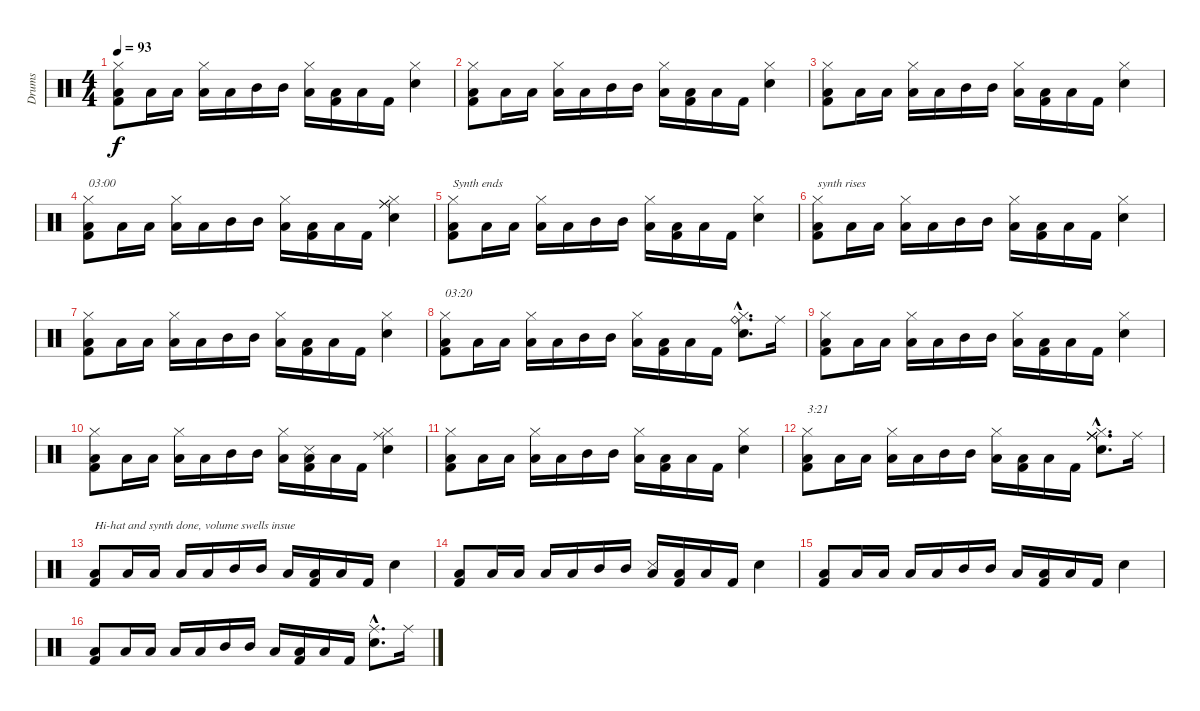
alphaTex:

\track ("Drums" "Drums") {instrument percussion}
\staff {score}
\articulation defaults
\ts (4 4)
\tempo 93
\clef neutral
\ks c
("Hi-Hat (closed)" "Low Floor Tom (hit)" "Kick (hit) 2").8{dy f} "Low Floor Tom (hit)".16 "Low Tom (hit)".16 ("Hi-Hat (closed)" "Low Tom (hit)").16 "Low Floor Tom (hit)".16 "Mid Tom (hit)".16 "Mid Tom (hit)".16 ("Hi-Hat (closed)" "Low Floor Tom (hit)").16 ("Low Tom (hit)" "Kick (hit) 2").16 "Low Floor Tom (hit)".16 "Kick (hit) 2".16 ("Hi-Hat (closed)" "Snare (hit) 2").4 |
("Hi-Hat (closed)" "Low Floor Tom (hit)" "Kick (hit) 2").8 "Low Floor Tom (hit)".16 "Low Tom (hit)".16 ("Hi-Hat (closed)" "Low Tom (hit)").16 "Low Floor Tom (hit)".16 "Mid Tom (hit)".16 "Mid Tom (hit)".16 ("Hi-Hat (closed)" "Low Floor Tom (hit)").16 ("Low Tom (hit)" "Kick (hit) 2").16 "Low Floor Tom (hit)".16 "Kick (hit) 2".16 ("Hi-Hat (closed)" "Snare (hit) 2").4 |
("Hi-Hat (closed)" "Low Floor Tom (hit)" "Kick (hit) 2").8 "Low Floor Tom (hit)".16 "Low Tom (hit)".16 ("Hi-Hat (closed)" "Low Tom (hit)").16 "Low Floor Tom (hit)".16 "Mid Tom (hit)".16 "Mid Tom (hit)".16 ("Hi-Hat (closed)" "Low Floor Tom (hit)").16 ("Low Tom (hit)" "Kick (hit) 2").16 "Low Floor Tom (hit)".16 "Kick (hit) 2".16 ("Hi-Hat (closed)" "Snare (hit) 2").4 |
("Hi-Hat (closed)" "Low Floor Tom (hit)" "Kick (hit) 2").8{txt "03:00"} "Low Floor Tom (hit)".16 "Low Tom (hit)".16 ("Hi-Hat (closed)" "Low Tom (hit)").16 "Low Floor Tom (hit)".16 "Mid Tom (hit)".16 "Mid Tom (hit)".16 ("Hi-Hat (closed)" "Low Floor Tom (hit)").16 ("Low Tom (hit)" "Kick (hit) 2").16 "Low Floor Tom (hit)".16 "Kick (hit) 2".16 ("Hi-Hat (closed)" "Ride (middle)" "Ride (middle)" "Snare (hit) 2").4 |
("Hi-Hat (closed)" "Low Floor Tom (hit)" "Kick (hit) 2").8{txt "Synth ends"} "Low Floor Tom (hit)".16 "Low Tom (hit)".16 ("Hi-Hat (closed)" "Low Tom (hit)").16 "Low Floor Tom (hit)".16 "Mid Tom (hit)".16 "Mid Tom (hit)".16 ("Hi-Hat (closed)" "Low Floor Tom (hit)").16 ("Low Tom (hit)" "Kick (hit) 2").16 "Low Floor Tom (hit)".16 "Kick (hit) 2".16 ("Hi-Hat (closed)" "Snare (hit) 2").4 |
("Hi-Hat (closed)" "Low Floor Tom (hit)" "Kick (hit) 2").8{txt "synth rises"} "Low Floor Tom (hit)".16 "Low Tom (hit)".16 ("Hi-Hat (closed)" "Low Tom (hit)").16 "Low Floor Tom (hit)".16 "Mid Tom (hit)".16 "Mid Tom (hit)".16 ("Hi-Hat (closed)" "Low Floor Tom (hit)").16 ("Low Tom (hit)" "Kick (hit) 2").16 "Low Floor Tom (hit)".16 "Kick (hit) 2".16 ("Hi-Hat (closed)" "Snare (hit) 2").4 |
("Hi-Hat (closed)" "Low Floor Tom (hit)" "Kick (hit) 2").8 "Low Floor Tom (hit)".16 "Low Tom (hit)".16 ("Hi-Hat (closed)" "Low Tom (hit)").16 "Low Floor Tom (hit)".16 "Mid Tom (hit)".16 "Mid Tom (hit)".16 ("Hi-Hat (closed)" "Low Floor Tom (hit)").16 ("Low Tom (hit)" "Kick (hit) 2").16 "Low Floor Tom (hit)".16 "Kick (hit) 2".16 ("Hi-Hat (closed)" "Snare (hit) 2").4 |
("Hi-Hat (closed)" "Low Floor Tom (hit)" "Kick (hit) 2").8{txt "03:20"} "Low Floor Tom (hit)".16 "Low Tom (hit)".16 ("Hi-Hat (closed)" "Low Tom (hit)").16 "Low Floor Tom (hit)".16 "Mid Tom (hit)".16 "Mid Tom (hit)".16 ("Hi-Hat (closed)" "Low Floor Tom (hit)").16 ("Low Tom (hit)" "Kick (hit) 2").16 "Low Floor Tom (hit)".16 "Kick (hit) 2".16 ("Hi-Hat (closed)"{hac} "Ride (bell)"{hac} "Snare (hit) 2"{hac}).8{d} "Ride (middle)".16 |
("Hi-Hat (closed)" "Low Floor Tom (hit)" "Kick (hit) 2").8 "Low Floor Tom (hit)".16 "Low Tom (hit)".16 ("Hi-Hat (closed)" "Low Tom (hit)").16 "Low Floor Tom (hit)".16 "Mid Tom (hit)".16 "Mid Tom (hit)".16 ("Hi-Hat (closed)" "Low Floor Tom (hit)").16 ("Low Tom (hit)" "Kick (hit) 2").16 "Low Floor Tom (hit)".16 "Kick (hit) 2".16 ("Hi-Hat (closed)" "Snare (hit) 2").4 |
("Hi-Hat (closed)" "Low Floor Tom (hit)" "Kick (hit) 2").8 "Low Floor Tom (hit)".16 "Low Tom (hit)".16 ("Hi-Hat (closed)" "Low Tom (hit)").16 "Low Floor Tom (hit)".16 "Mid Tom (hit)".16 "Mid Tom (hit)".16 ("Hi-Hat (closed)" "Low Floor Tom (hit)").16 ("Snare (side stick) 3" "Low Tom (hit)" "Kick (hit) 2").16 "Low Floor Tom (hit)".16 "Kick (hit) 2".16 ("Hi-Hat (closed)" "Ride (middle)" "Snare (hit) 2").4 |
("Hi-Hat (closed)" "Low Floor Tom (hit)" "Kick (hit) 2").8 "Low Floor Tom (hit)".16 "Low Tom (hit)".16 ("Hi-Hat (closed)" "Low Tom (hit)").16 "Low Floor Tom (hit)".16 "Mid Tom (hit)".16 "Mid Tom (hit)".16 ("Hi-Hat (closed)" "Low Floor Tom (hit)").16 ("Low Tom (hit)" "Kick (hit) 2").16 "Low Floor Tom (hit)".16 "Kick (hit) 2".16 ("Hi-Hat (closed)" "Snare (hit) 2").4 |
("Hi-Hat (closed)" "Low Floor Tom (hit)" "Kick (hit) 2").8{txt "3:21"} "Low Floor Tom (hit)".16 "Low Tom (hit)".16 ("Hi-Hat (closed)" "Low Tom (hit)").16 "Low Floor Tom (hit)".16 "Mid Tom (hit)".16 "Mid Tom (hit)".16 ("Hi-Hat (closed)" "Low Floor Tom (hit)").16 ("Low Tom (hit)" "Kick (hit) 2").16 "Low Floor Tom (hit)".16 "Kick (hit) 2".16 ("Hi-Hat (closed)"{hac} "Ride (middle)"{hac} "Ride (middle)"{hac} "Ride (middle)"{hac} "Snare (hit) 2"{hac}).8{d} "Ride (middle)".16 |
("Low Floor Tom (hit)" "Kick (hit) 2").8{txt "Hi-hat and synth done, volume swells insue"} "Low Floor Tom (hit)".16 "Low Tom (hit)".16 "Low Tom (hit)".16 "Low Floor Tom (hit)".16 "Mid Tom (hit)".16 "Mid Tom (hit)".16 "Low Floor Tom (hit)".16 ("Low Tom (hit)" "Kick (hit) 2").16 "Low Floor Tom (hit)".16 "Kick (hit) 2".16 "Snare (hit) 2".4 |
("Low Floor Tom (hit)" "Kick (hit) 2").8 "Low Floor Tom (hit)".16 "Low Tom (hit)".16 "Low Tom (hit)".16 "Low Floor Tom (hit)".16 "Mid Tom (hit)".16 "Mid Tom (hit)".16 ("Snare (side stick) 3" "Low Floor Tom (hit)").16 ("Low Tom (hit)" "Kick (hit) 2").16 "Low Floor Tom (hit)".16 "Kick (hit) 2".16 "Snare (hit) 2".4 |
("Low Floor Tom (hit)" "Kick (hit) 2").8 "Low Floor Tom (hit)".16 "Low Tom (hit)".16 "Low Tom (hit)".16 "Low Floor Tom (hit)".16 "Mid Tom (hit)".16 "Mid Tom (hit)".16 "Low Floor Tom (hit)".16 ("Low Tom (hit)" "Kick (hit) 2").16 "Low Floor Tom (hit)".16 "Kick (hit) 2".16 "Snare (hit) 2".4 |
("Low Floor Tom (hit)" "Kick (hit) 2").8 "Low Floor Tom (hit)".16 "Low Tom (hit)".16 "Low Tom (hit)".16 "Low Floor Tom (hit)".16 "Mid Tom (hit)".16 "Mid Tom (hit)".16 "Low Floor Tom (hit)".16 ("Low Tom (hit)" "Kick (hit) 2").16 "Low Floor Tom (hit)".16 "Kick (hit) 2".16 ("Ride (middle)"{hac} "Snare (hit) 2"{hac}).8{d} "Ride (middle)".16
